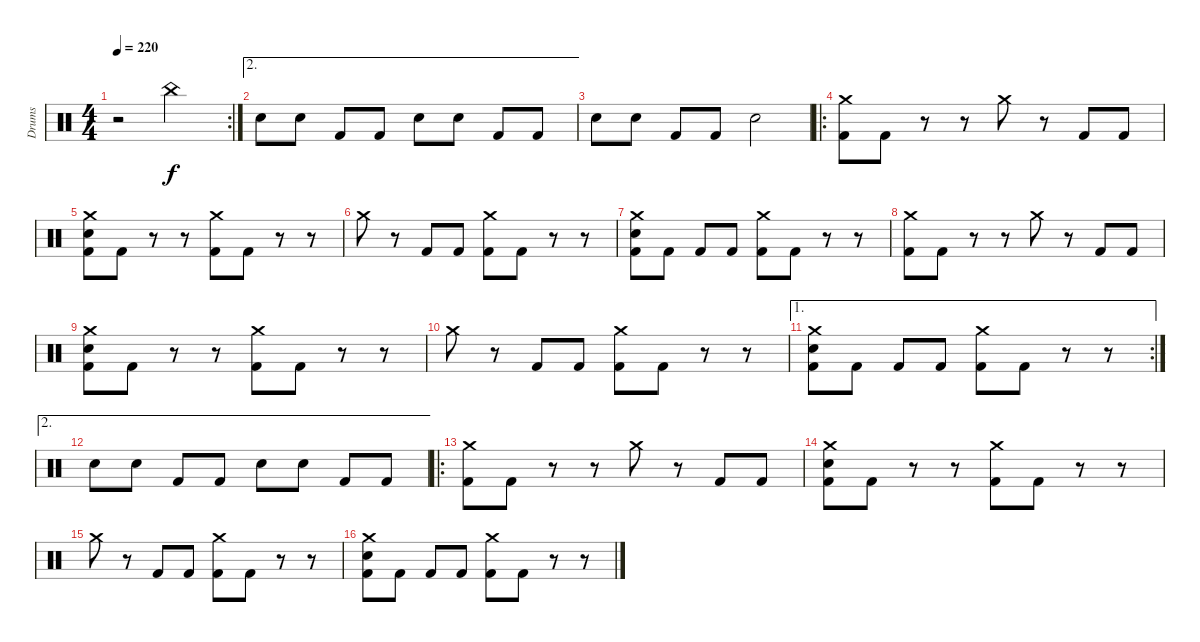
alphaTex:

\track ("Drums" "Drums") {instrument percussion}
\staff {score}
\articulation defaults
\rc 2
\ts (4 4)
\tempo 220
\clef neutral
\ks c
r.2{dy f} "China (hit)".2 |
\ae 2 "Electric Snare (hit)".8 "Electric Snare (hit)".8 "Kick (hit) 2".8 "Kick (hit) 2".8 "Electric Snare (hit)".8 "Electric Snare (hit)".8 "Kick (hit) 2".8 "Kick (hit) 2".8
|
"Electric Snare (hit)".8 "Electric Snare (hit)".8 "Kick (hit) 2".8 "Kick (hit) 2".8 "Electric Snare (hit)".2 |
\ro
("Crash medium (hit)" "Kick (hit) 2").8 "Kick (hit) 2".8 r.8 r.8 "Crash medium (hit)".8 r.8 "Kick (hit) 2".8 "Kick (hit) 2".8 |
("Crash medium (hit)" "Electric Snare (hit)" "Kick (hit) 2").8 "Kick (hit) 2".8 r.8 r.8 ("Crash medium (hit)" "Kick (hit) 2").8 "Kick (hit) 2".8 r.8 r.8 |
"Crash medium (hit)".8 r.8 "Kick (hit) 2".8 "Kick (hit) 2".8 ("Crash medium (hit)" "Kick (hit) 2").8 "Kick (hit) 2".8 r.8 r.8 |
("Crash medium (hit)" "Electric Snare (hit)" "Kick (hit) 2").8 "Kick (hit) 2".8 "Kick (hit) 2".8 "Kick (hit) 2".8 ("Crash medium (hit)" "Kick (hit) 2").8 "Kick (hit) 2".8 r.8 r.8 |
("Crash medium (hit)" "Kick (hit) 2").8 "Kick (hit) 2".8 r.8 r.8 "Crash medium (hit)".8 r.8 "Kick (hit) 2".8 "Kick (hit) 2".8 |
("Crash medium (hit)" "Electric Snare (hit)" "Kick (hit) 2").8 "Kick (hit) 2".8 r.8 r.8 ("Crash medium (hit)" "Kick (hit) 2").8 "Kick (hit) 2".8 r.8 r.8 |
"Crash medium (hit)".8 r.8 "Kick (hit) 2".8 "Kick (hit) 2".8 ("Crash medium (hit)" "Kick (hit) 2").8 "Kick (hit) 2".8 r.8 r.8 |
\ae 1
\rc 2
("Crash medium (hit)" "Electric Snare (hit)" "Kick (hit) 2").8 "Kick (hit) 2".8 "Kick (hit) 2".8 "Kick (hit) 2".8 ("Crash medium (hit)" "Kick (hit) 2").8 "Kick (hit) 2".8 r.8 r.8 |
\ae 2 "Electric Snare (hit)".8 "Electric Snare (hit)".8 "Kick (hit) 2".8 "Kick (hit) 2".8 "Electric Snare (hit)".8 "Electric Snare (hit)".8 "Kick (hit) 2".8 "Kick (hit) 2".8
|
\ro
("Crash medium (hit)" "Kick (hit) 2").8 "Kick (hit) 2".8 r.8 r.8 "Crash medium (hit)".8 r.8 "Kick (hit) 2".8 "Kick (hit) 2".8 |
("Crash medium (hit)" "Electric Snare (hit)" "Kick (hit) 2").8 "Kick (hit) 2".8 r.8 r.8 ("Crash medium (hit)" "Kick (hit) 2").8 "Kick (hit) 2".8 r.8 r.8 |
"Crash medium (hit)".8 r.8 "Kick (hit) 2".8 "Kick (hit) 2".8 ("Crash medium (hit)" "Kick (hit) 2").8 "Kick (hit) 2".8 r.8 r.8 |
("Crash medium (hit)" "Electric Snare (hit)" "Kick (hit) 2").8 "Kick (hit) 2".8 "Kick (hit) 2".8 "Kick (hit) 2".8 ("Crash medium (hit)" "Kick (hit) 2").8 "Kick (hit) 2".8 r.8 r.8
